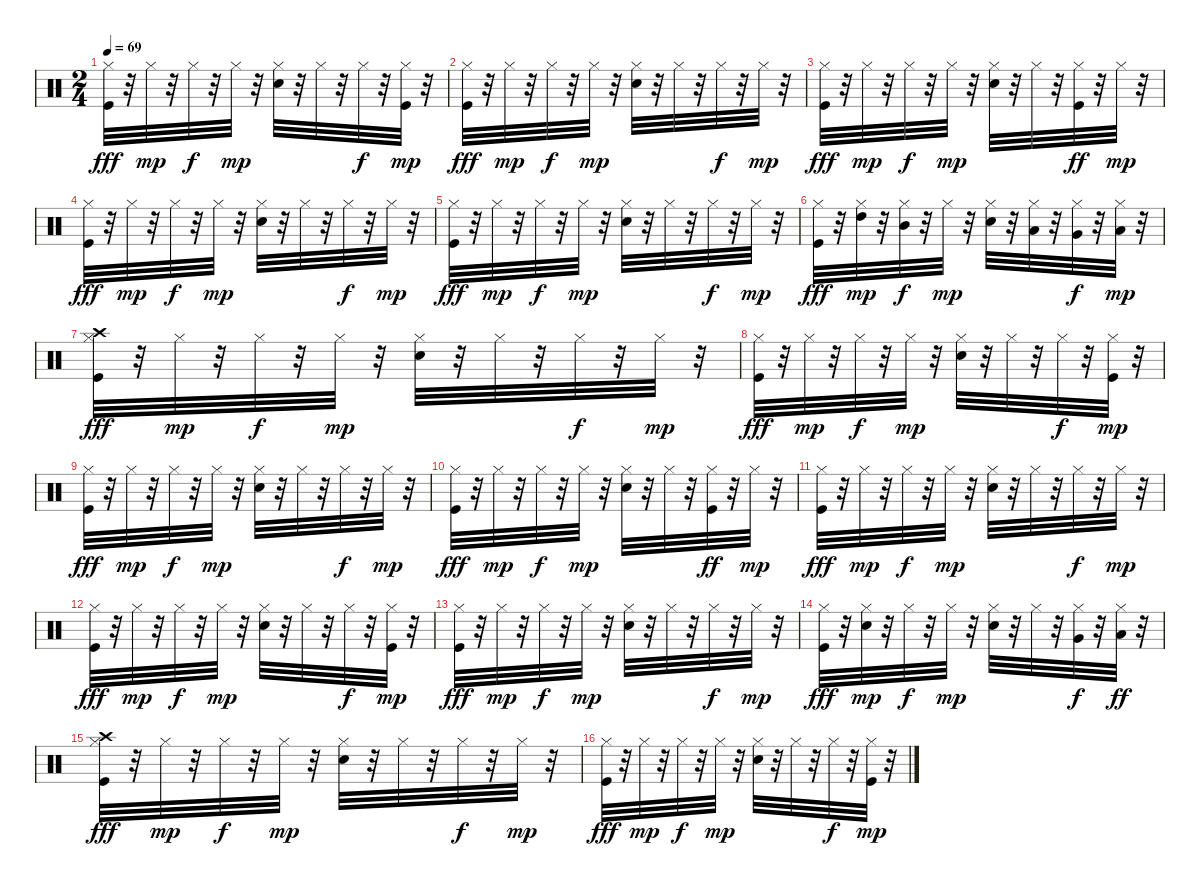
\track "" {instrument percussion}
\staff {score}
\articulation defaults
\ts (2 4)
\tempo 69
\clef neutral
\ks c
("Kick (hit)" "Hi-Hat (closed)").32{dy fff} r.32 "Hi-Hat (closed)".32{dy mp} r.32 "Hi-Hat (closed)".32{dy f} r.32 "Hi-Hat (closed)".32{dy mp} r.32 ("Metronome (bell)" "Hi-Hat (closed)").32 r.32 "Hi-Hat (closed)".32 r.32 "Hi-Hat (closed)".32{dy f} r.32 ("Kick (hit)" "Hi-Hat (closed)").32{dy mp} r.32 |
("Hi-Hat (closed)" "Kick (hit)").32{dy fff} r.32 "Hi-Hat (closed)".32{dy mp} r.32 "Hi-Hat (closed)".32{dy f} r.32 "Hi-Hat (closed)".32{dy mp} r.32 ("Metronome (bell)" "Hi-Hat (closed)").32 r.32 "Hi-Hat (closed)".32 r.32 "Hi-Hat (closed)".32{dy f} r.32 "Hi-Hat (closed)".32{dy mp} r.32 |
("Kick (hit)" "Hi-Hat (closed)").32{dy fff} r.32 "Hi-Hat (closed)".32{dy mp} r.32 "Hi-Hat (closed)".32{dy f} r.32 "Hi-Hat (closed)".32{dy mp} r.32 ("Metronome (bell)" "Hi-Hat (closed)").32 r.32 "Hi-Hat (closed)".32 r.32 ("Hi-Hat (closed)" "Kick (hit)").32{dy ff} r.32 "Hi-Hat (closed)".32{dy mp} r.32 |
("Hi-Hat (closed)" "Kick (hit)").32{dy fff} r.32 "Hi-Hat (closed)".32{dy mp} r.32 "Hi-Hat (closed)".32{dy f} r.32 "Hi-Hat (closed)".32{dy mp} r.32 ("Metronome (bell)" "Hi-Hat (closed)").32 r.32 "Hi-Hat (closed)".32 r.32 "Hi-Hat (closed)".32{dy f} r.32 "Hi-Hat (closed)".32{dy mp} r.32 |
("Kick (hit)" "Hi-Hat (closed)").32{dy fff} r.32 "Hi-Hat (closed)".32{dy mp} r.32 "Hi-Hat (closed)".32{dy f} r.32 "Hi-Hat (closed)".32{dy mp} r.32 ("Metronome (bell)" "Hi-Hat (closed)").32 r.32 "Hi-Hat (closed)".32 r.32 "Hi-Hat (closed)".32{dy f} r.32 "Hi-Hat (closed)".32{dy mp} r.32 |
("Kick (hit)" "Hi-Hat (closed)").32{dy fff} r.32 ("Hi-Hat (closed)" "High Tom (hit)").32{dy mp} r.32 ("Hi-Hat (closed)" "Mid Tom (hit)").32{dy f} r.32 "Hi-Hat (closed)".32{dy mp} r.32 ("Metronome (bell)" "Hi-Hat (closed)").32 r.32 ("Low Tom (hit)" "Hi-Hat (closed)").32 r.32 ("Very Low Tom (hit)" "Hi-Hat (closed)").32{dy f} r.32 ("Low Floor Tom (hit)" "Hi-Hat (closed)").32{dy mp} r.32 |
("Crash high (hit)" "Hi-Hat (closed)" "Kick (hit)").32{dy fff} r.32 "Hi-Hat (closed)".32{dy mp} r.32 "Hi-Hat (closed)".32{dy f} r.32 "Hi-Hat (closed)".32{dy mp} r.32 ("Metronome (bell)" "Hi-Hat (closed)").32 r.32 "Hi-Hat (closed)".32 r.32 "Hi-Hat (closed)".32{dy f} r.32 "Hi-Hat (closed)".32{dy mp} r.32 |
("Kick (hit)" "Hi-Hat (closed)").32{dy fff} r.32 "Hi-Hat (closed)".32{dy mp} r.32 "Hi-Hat (closed)".32{dy f} r.32 "Hi-Hat (closed)".32{dy mp} r.32 ("Metronome (bell)" "Hi-Hat (closed)").32 r.32 "Hi-Hat (closed)".32 r.32 "Hi-Hat (closed)".32{dy f} r.32 ("Kick (hit)" "Hi-Hat (closed)").32{dy mp} r.32 |
("Hi-Hat (closed)" "Kick (hit)").32{dy fff} r.32 "Hi-Hat (closed)".32{dy mp} r.32 "Hi-Hat (closed)".32{dy f} r.32 "Hi-Hat (closed)".32{dy mp} r.32 ("Metronome (bell)" "Hi-Hat (closed)").32 r.32 "Hi-Hat (closed)".32 r.32 "Hi-Hat (closed)".32{dy f} r.32 "Hi-Hat (closed)".32{dy mp} r.32 |
("Kick (hit)" "Hi-Hat (closed)").32{dy fff} r.32 "Hi-Hat (closed)".32{dy mp} r.32 "Hi-Hat (closed)".32{dy f} r.32 "Hi-Hat (closed)".32{dy mp} r.32 ("Metronome (bell)" "Hi-Hat (closed)").32 r.32 "Hi-Hat (closed)".32 r.32 ("Hi-Hat (closed)" "Kick (hit)").32{dy ff} r.32 "Hi-Hat (closed)".32{dy mp} r.32 |
("Hi-Hat (closed)" "Kick (hit)").32{dy fff} r.32 "Hi-Hat (closed)".32{dy mp} r.32 "Hi-Hat (closed)".32{dy f} r.32 "Hi-Hat (closed)".32{dy mp} r.32 ("Metronome (bell)" "Hi-Hat (closed)").32 r.32 "Hi-Hat (closed)".32 r.32 "Hi-Hat (closed)".32{dy f} r.32 "Hi-Hat (closed)".32{dy mp} r.32 |
("Kick (hit)" "Hi-Hat (closed)").32{dy fff} r.32 "Hi-Hat (closed)".32{dy mp} r.32 "Hi-Hat (closed)".32{dy f} r.32 "Hi-Hat (closed)".32{dy mp} r.32 ("Metronome (bell)" "Hi-Hat (closed)").32 r.32 "Hi-Hat (closed)".32 r.32 "Hi-Hat (closed)".32{dy f} r.32 ("Kick (hit)" "Hi-Hat (closed)").32{dy mp} r.32 |
("Hi-Hat (closed)" "Kick (hit)").32{dy fff} r.32 "Hi-Hat (closed)".32{dy mp} r.32 "Hi-Hat (closed)".32{dy f} r.32 "Hi-Hat (closed)".32{dy mp} r.32 ("Metronome (bell)" "Hi-Hat (closed)").32 r.32 "Hi-Hat (closed)".32 r.32 "Hi-Hat (closed)".32{dy f} r.32 "Hi-Hat (closed)".32{dy mp} r.32 |
("Kick (hit)" "Hi-Hat (closed)").32{dy fff} r.32 ("Hi-Hat (closed)" "Metronome (bell)").32{dy mp} r.32 "Hi-Hat (closed)".32{dy f} r.32 "Hi-Hat (closed)".32{dy mp} r.32 ("Metronome (bell)" "Hi-Hat (closed)").32 r.32 "Hi-Hat (closed)".32 r.32 ("Hi-Hat (closed)" "Very Low Tom (hit)").32{dy f} r.32 ("Hi-Hat (closed)" "Low Floor Tom (hit)").32{dy ff} r.32 |
("Crash high (hit)" "Hi-Hat (closed)" "Kick (hit)").32{dy fff} r.32 "Hi-Hat (closed)".32{dy mp} r.32 "Hi-Hat (closed)".32{dy f} r.32 "Hi-Hat (closed)".32{dy mp} r.32 ("Metronome (bell)" "Hi-Hat (closed)").32 r.32 "Hi-Hat (closed)".32 r.32 "Hi-Hat (closed)".32{dy f} r.32 "Hi-Hat (closed)".32{dy mp} r.32 |
("Kick (hit)" "Hi-Hat (closed)").32{dy fff} r.32 "Hi-Hat (closed)".32{dy mp} r.32 "Hi-Hat (closed)".32{dy f} r.32 "Hi-Hat (closed)".32{dy mp} r.32 ("Metronome (bell)" "Hi-Hat (closed)").32 r.32 "Hi-Hat (closed)".32 r.32 "Hi-Hat (closed)".32{dy f} r.32 ("Kick (hit)" "Hi-Hat (closed)").32{dy mp} r.32
